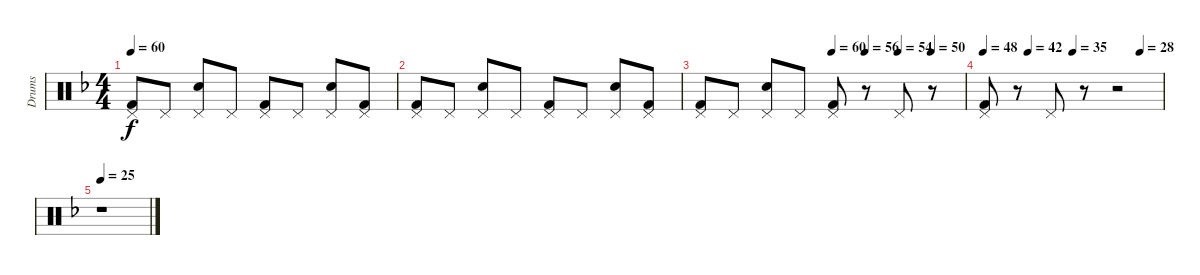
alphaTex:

\track ("Drums" "Drums") {instrument percussion}
\staff {score}
\articulation defaults
\ts (4 4)
\tempo 60
\clef neutral
\ks dminor
("Pedal Hi-Hat (hit)" "Kick (hit) 2").8{dy f} "Pedal Hi-Hat (hit)".8 ("Pedal Hi-Hat (hit)" "Snare (hit) 2").8 "Pedal Hi-Hat (hit)".8 ("Pedal Hi-Hat (hit)" "Kick (hit) 2").8 "Pedal Hi-Hat (hit)".8 ("Pedal Hi-Hat (hit)" "Snare (hit) 2").8 ("Pedal Hi-Hat (hit)" "Kick (hit) 2").8 |
("Pedal Hi-Hat (hit)" "Kick (hit) 2").8 "Pedal Hi-Hat (hit)".8 ("Pedal Hi-Hat (hit)" "Snare (hit) 2").8 "Pedal Hi-Hat (hit)".8 ("Pedal Hi-Hat (hit)" "Kick (hit) 2").8 "Pedal Hi-Hat (hit)".8 ("Pedal Hi-Hat (hit)" "Snare (hit) 2").8 ("Pedal Hi-Hat (hit)" "Kick (hit) 2").8 |
\tempo (60 0.5)
\tempo (56 0.625)
\tempo (54 0.75)
\tempo (50 0.875)
("Pedal Hi-Hat (hit)" "Kick (hit) 2").8 "Pedal Hi-Hat (hit)".8 ("Pedal Hi-Hat (hit)" "Snare (hit) 2").8 "Pedal Hi-Hat (hit)".8 ("Pedal Hi-Hat (hit)" "Kick (hit) 2").8 r.8 "Pedal Hi-Hat (hit)".8 r.8 |
\tempo 48
\tempo (42 0.25)
\tempo (35 0.5)
\tempo (28 0.875)
("Pedal Hi-Hat (hit)" "Kick (hit) 2").8 r.8 "Pedal Hi-Hat (hit)".8 r.8 r.2 |
\tempo 25
r.1
